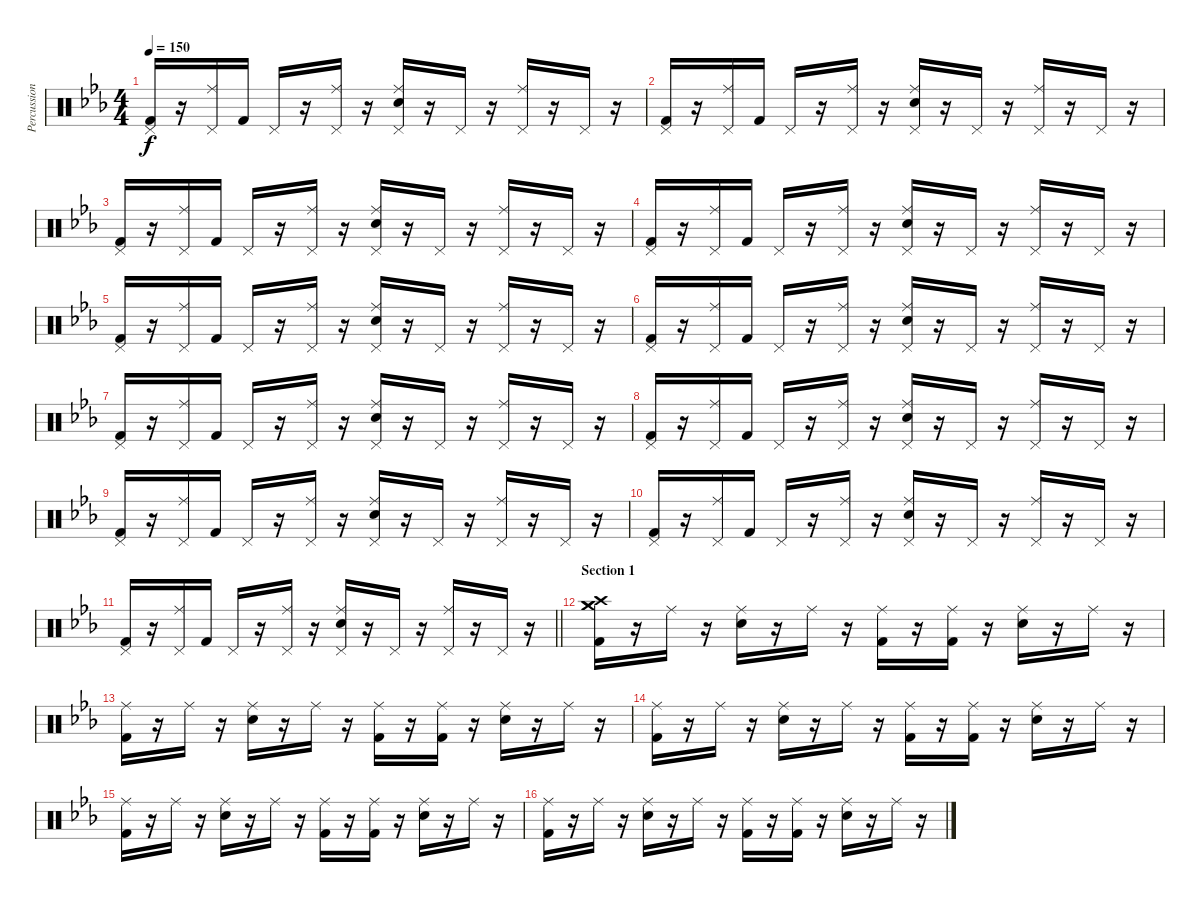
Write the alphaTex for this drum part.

\track ("Percussions" "Percussion") {solo instrument percussion}
\staff {score}
\articulation defaults
\ts (4 4)
\tempo 150
\clef neutral
\ks eb
("Pedal Hi-Hat (hit)" "Kick (hit) 2").16{dy f} r.16 ("Pedal Hi-Hat (hit)" "Ride (middle)").16 "Kick (hit) 2".16 "Pedal Hi-Hat (hit)".16 r.16 ("Pedal Hi-Hat (hit)" "Ride (middle)").16 r.16 ("Pedal Hi-Hat (hit)" "Ride (middle)" "Snare (hit) 2").16 r.16 "Pedal Hi-Hat (hit)".16 r.16 ("Pedal Hi-Hat (hit)" "Ride (middle)").16 r.16 "Pedal Hi-Hat (hit)".16 r.16 |
("Pedal Hi-Hat (hit)" "Kick (hit) 2").16 r.16 ("Pedal Hi-Hat (hit)" "Ride (middle)").16 "Kick (hit) 2".16 "Pedal Hi-Hat (hit)".16 r.16 ("Pedal Hi-Hat (hit)" "Ride (middle)").16 r.16 ("Pedal Hi-Hat (hit)" "Ride (middle)" "Snare (hit) 2").16 r.16 "Pedal Hi-Hat (hit)".16 r.16 ("Pedal Hi-Hat (hit)" "Ride (middle)").16 r.16 "Pedal Hi-Hat (hit)".16 r.16 |
("Pedal Hi-Hat (hit)" "Kick (hit) 2").16 r.16 ("Pedal Hi-Hat (hit)" "Ride (middle)").16 "Kick (hit) 2".16 "Pedal Hi-Hat (hit)".16 r.16 ("Pedal Hi-Hat (hit)" "Ride (middle)").16 r.16 ("Pedal Hi-Hat (hit)" "Ride (middle)" "Snare (hit) 2").16 r.16 "Pedal Hi-Hat (hit)".16 r.16 ("Pedal Hi-Hat (hit)" "Ride (middle)").16 r.16 "Pedal Hi-Hat (hit)".16 r.16 |
("Pedal Hi-Hat (hit)" "Kick (hit) 2").16 r.16 ("Pedal Hi-Hat (hit)" "Ride (middle)").16 "Kick (hit) 2".16 "Pedal Hi-Hat (hit)".16 r.16 ("Pedal Hi-Hat (hit)" "Ride (middle)").16 r.16 ("Pedal Hi-Hat (hit)" "Ride (middle)" "Snare (hit) 2").16 r.16 "Pedal Hi-Hat (hit)".16 r.16 ("Pedal Hi-Hat (hit)" "Ride (middle)").16 r.16 "Pedal Hi-Hat (hit)".16 r.16 |
("Pedal Hi-Hat (hit)" "Kick (hit) 2").16 r.16 ("Pedal Hi-Hat (hit)" "Ride (middle)").16 "Kick (hit) 2".16 "Pedal Hi-Hat (hit)".16 r.16 ("Pedal Hi-Hat (hit)" "Ride (middle)").16 r.16 ("Pedal Hi-Hat (hit)" "Ride (middle)" "Snare (hit) 2").16 r.16 "Pedal Hi-Hat (hit)".16 r.16 ("Pedal Hi-Hat (hit)" "Ride (middle)").16 r.16 "Pedal Hi-Hat (hit)".16 r.16 |
("Pedal Hi-Hat (hit)" "Kick (hit) 2").16 r.16 ("Pedal Hi-Hat (hit)" "Ride (middle)").16 "Kick (hit) 2".16 "Pedal Hi-Hat (hit)".16 r.16 ("Pedal Hi-Hat (hit)" "Ride (middle)").16 r.16 ("Pedal Hi-Hat (hit)" "Ride (middle)" "Snare (hit) 2").16 r.16 "Pedal Hi-Hat (hit)".16 r.16 ("Pedal Hi-Hat (hit)" "Ride (middle)").16 r.16 "Pedal Hi-Hat (hit)".16 r.16 |
("Pedal Hi-Hat (hit)" "Kick (hit) 2").16 r.16 ("Pedal Hi-Hat (hit)" "Ride (middle)").16 "Kick (hit) 2".16 "Pedal Hi-Hat (hit)".16 r.16 ("Pedal Hi-Hat (hit)" "Ride (middle)").16 r.16 ("Pedal Hi-Hat (hit)" "Ride (middle)" "Snare (hit) 2").16 r.16 "Pedal Hi-Hat (hit)".16 r.16 ("Pedal Hi-Hat (hit)" "Ride (middle)").16 r.16 "Pedal Hi-Hat (hit)".16 r.16 |
("Pedal Hi-Hat (hit)" "Kick (hit) 2").16 r.16 ("Pedal Hi-Hat (hit)" "Ride (middle)").16 "Kick (hit) 2".16 "Pedal Hi-Hat (hit)".16 r.16 ("Pedal Hi-Hat (hit)" "Ride (middle)").16 r.16 ("Pedal Hi-Hat (hit)" "Ride (middle)" "Snare (hit) 2").16 r.16 "Pedal Hi-Hat (hit)".16 r.16 ("Pedal Hi-Hat (hit)" "Ride (middle)").16 r.16 "Pedal Hi-Hat (hit)".16 r.16 |
("Pedal Hi-Hat (hit)" "Kick (hit) 2").16 r.16 ("Pedal Hi-Hat (hit)" "Ride (middle)").16 "Kick (hit) 2".16 "Pedal Hi-Hat (hit)".16 r.16 ("Pedal Hi-Hat (hit)" "Ride (middle)").16 r.16 ("Pedal Hi-Hat (hit)" "Ride (middle)" "Snare (hit) 2").16 r.16 "Pedal Hi-Hat (hit)".16 r.16 ("Pedal Hi-Hat (hit)" "Ride (middle)").16 r.16 "Pedal Hi-Hat (hit)".16 r.16 |
("Pedal Hi-Hat (hit)" "Kick (hit) 2").16 r.16 ("Pedal Hi-Hat (hit)" "Ride (middle)").16 "Kick (hit) 2".16 "Pedal Hi-Hat (hit)".16 r.16 ("Pedal Hi-Hat (hit)" "Ride (middle)").16 r.16 ("Pedal Hi-Hat (hit)" "Ride (middle)" "Snare (hit) 2").16 r.16 "Pedal Hi-Hat (hit)".16 r.16 ("Pedal Hi-Hat (hit)" "Ride (middle)").16 r.16 "Pedal Hi-Hat (hit)".16 r.16 |
\barLineRight lightlight
("Pedal Hi-Hat (hit)" "Kick (hit) 2").16 r.16 ("Pedal Hi-Hat (hit)" "Ride (middle)").16 "Kick (hit) 2".16 "Pedal Hi-Hat (hit)".16 r.16 ("Pedal Hi-Hat (hit)" "Ride (middle)").16 r.16 ("Pedal Hi-Hat (hit)" "Ride (middle)" "Snare (hit) 2").16 r.16 "Pedal Hi-Hat (hit)".16 r.16 ("Pedal Hi-Hat (hit)" "Ride (middle)").16 r.16 "Pedal Hi-Hat (hit)".16 r.16 |
\section ("" "Section 1")
("Crash medium (hit)" "Crash medium (hit)" "Kick (hit) 2" "Crash high (hit)").16 r.16 "Ride (middle)".16 r.16 ("Ride (middle)" "Snare (hit) 2").16 r.16 "Ride (middle)".16 r.16 ("Ride (middle)" "Kick (hit) 2").16 r.16 ("Ride (middle)" "Kick (hit) 2").16 r.16 ("Ride (middle)" "Snare (hit) 2").16 r.16 "Ride (middle)".16 r.16 |
("Ride (middle)" "Kick (hit) 2").16 r.16 "Ride (middle)".16 r.16 ("Ride (middle)" "Snare (hit) 2").16 r.16 "Ride (middle)".16 r.16 ("Ride (middle)" "Kick (hit) 2").16 r.16 ("Ride (middle)" "Kick (hit) 2").16 r.16 ("Ride (middle)" "Snare (hit) 2").16 r.16 "Ride (middle)".16 r.16 |
("Ride (middle)" "Kick (hit) 2").16 r.16 "Ride (middle)".16 r.16 ("Ride (middle)" "Snare (hit) 2").16 r.16 "Ride (middle)".16 r.16 ("Ride (middle)" "Kick (hit) 2").16 r.16 ("Ride (middle)" "Kick (hit) 2").16 r.16 ("Ride (middle)" "Snare (hit) 2").16 r.16 "Ride (middle)".16 r.16 |
("Ride (middle)" "Kick (hit) 2").16 r.16 "Ride (middle)".16 r.16 ("Ride (middle)" "Snare (hit) 2").16 r.16 "Ride (middle)".16 r.16 ("Ride (middle)" "Kick (hit) 2").16 r.16 ("Ride (middle)" "Kick (hit) 2").16 r.16 ("Ride (middle)" "Snare (hit) 2").16 r.16 "Ride (middle)".16 r.16 |
("Ride (middle)" "Kick (hit) 2").16 r.16 "Ride (middle)".16 r.16 ("Ride (middle)" "Snare (hit) 2").16 r.16 "Ride (middle)".16 r.16 ("Ride (middle)" "Kick (hit) 2").16 r.16 ("Ride (middle)" "Kick (hit) 2").16 r.16 ("Ride (middle)" "Snare (hit) 2").16 r.16 "Ride (middle)".16 r.16
